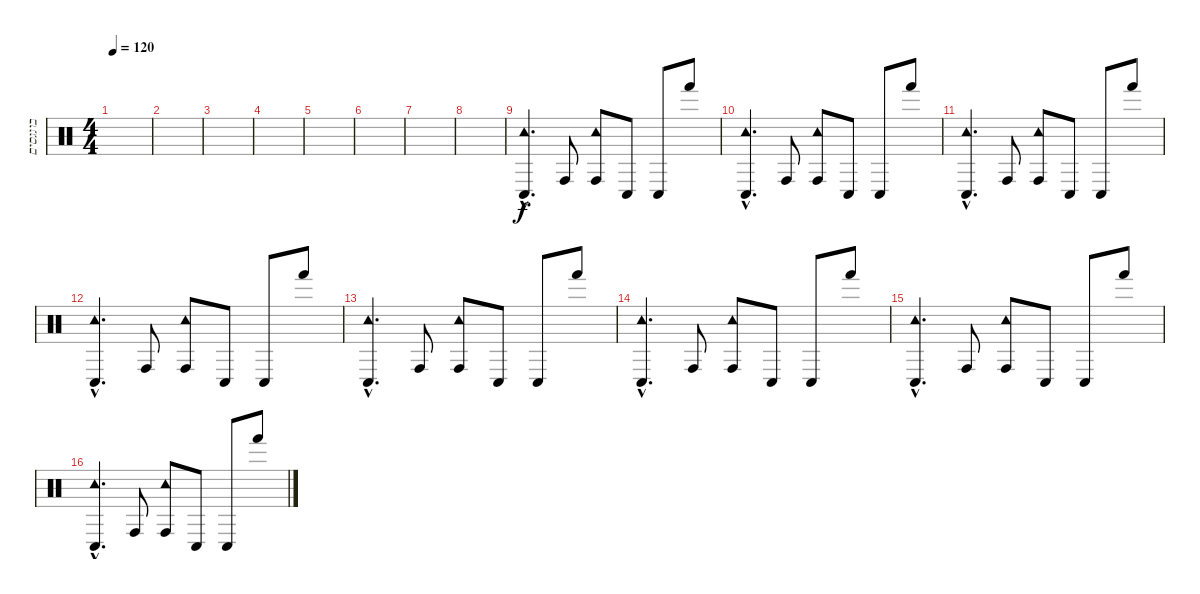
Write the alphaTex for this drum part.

\track ("בונגסים" "בונגסים") {instrument percussion}
\staff {score}
\articulation defaults
\ts (4 4)
\tempo 120
\clef neutral
\ks c
|
|
|
|
|
|
|
|
("Conga low (hit)"{hac} "Tambourine (hit)"{hac}).4{d} "Conga high (hit)".8 ("Conga high (hit)" "Tambourine (hit)").8 "Conga low (hit)".8 "Conga low (hit)".8 "Hand (hit)".8 |
("Conga low (hit)"{hac} "Tambourine (hit)"{hac}).4{d} "Conga high (hit)".8 ("Conga high (hit)" "Tambourine (hit)").8 "Conga low (hit)".8 "Conga low (hit)".8 "Hand (hit)".8 |
("Conga low (hit)"{hac} "Tambourine (hit)"{hac}).4{d} "Conga high (hit)".8 ("Conga high (hit)" "Tambourine (hit)").8 "Conga low (hit)".8 "Conga low (hit)".8 "Hand (hit)".8 |
("Conga low (hit)"{hac} "Tambourine (hit)"{hac}).4{d} "Conga high (hit)".8 ("Conga high (hit)" "Tambourine (hit)").8 "Conga low (hit)".8 "Conga low (hit)".8 "Hand (hit)".8 |
("Conga low (hit)"{hac} "Tambourine (hit)"{hac}).4{d} "Conga high (hit)".8 ("Conga high (hit)" "Tambourine (hit)").8 "Conga low (hit)".8 "Conga low (hit)".8 "Hand (hit)".8 |
("Conga low (hit)"{hac} "Tambourine (hit)"{hac}).4{d} "Conga high (hit)".8 ("Conga high (hit)" "Tambourine (hit)").8 "Conga low (hit)".8 "Conga low (hit)".8 "Hand (hit)".8 |
("Conga low (hit)"{hac} "Tambourine (hit)"{hac}).4{d} "Conga high (hit)".8 ("Conga high (hit)" "Tambourine (hit)").8 "Conga low (hit)".8 "Conga low (hit)".8 "Hand (hit)".8 |
("Conga low (hit)"{hac} "Tambourine (hit)"{hac}).4{d} "Conga high (hit)".8 ("Conga high (hit)" "Tambourine (hit)").8 "Conga low (hit)".8 "Conga low (hit)".8 "Hand (hit)".8
